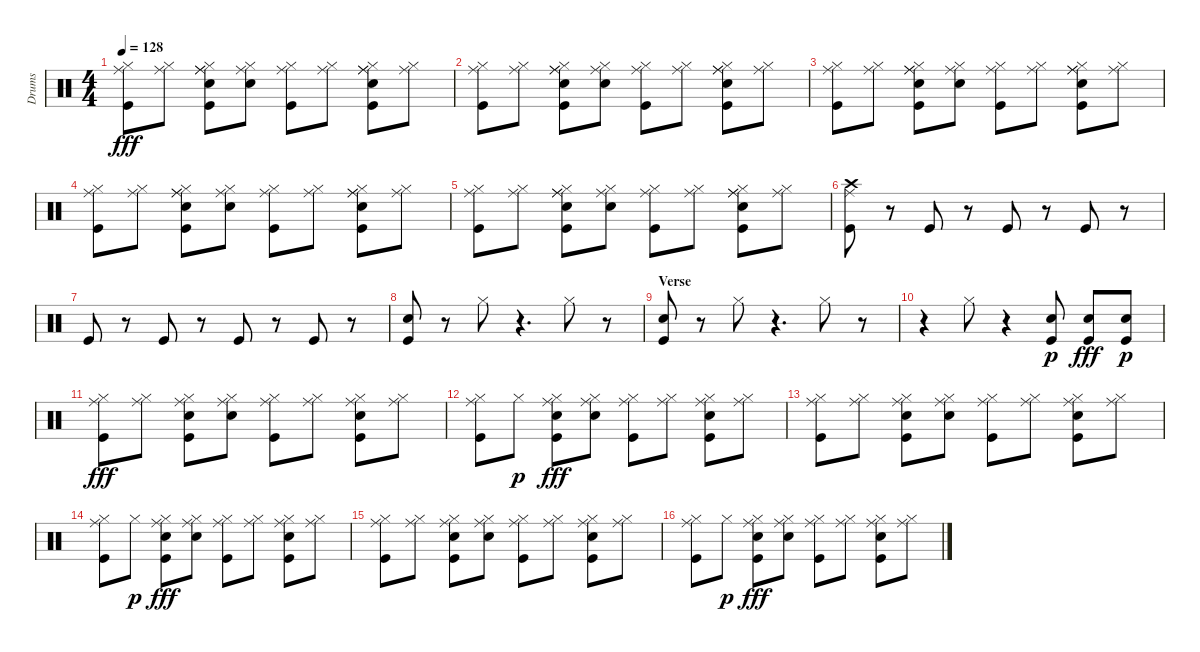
\track ("Drums               " "Drums     ") {instrument percussion}
\staff {score}
\articulation defaults
\ts (4 4)
\tempo 128
\clef neutral
\ks c
("Ride (middle)" "Hi-Hat (closed)" "Kick (hit)").8{dy fff} ("Ride (middle)" "Hi-Hat (closed)").8 ("Ride (middle)" "Hi-Hat (closed)" "Ride (middle)" "Electric Snare (hit)" "Kick (hit)").8 ("Ride (middle)" "Hi-Hat (closed)" "Electric Snare (hit)").8 ("Ride (middle)" "Hi-Hat (closed)" "Kick (hit)").8 ("Ride (middle)" "Hi-Hat (closed)").8 ("Ride (middle)" "Hi-Hat (closed)" "Ride (middle)" "Electric Snare (hit)" "Kick (hit)").8 ("Ride (middle)" "Hi-Hat (closed)").8 |
("Ride (middle)" "Hi-Hat (closed)" "Kick (hit)").8 ("Ride (middle)" "Hi-Hat (closed)").8 ("Ride (middle)" "Hi-Hat (closed)" "Ride (middle)" "Electric Snare (hit)" "Kick (hit)").8 ("Ride (middle)" "Hi-Hat (closed)" "Electric Snare (hit)").8 ("Ride (middle)" "Hi-Hat (closed)" "Kick (hit)").8 ("Ride (middle)" "Hi-Hat (closed)").8 ("Ride (middle)" "Hi-Hat (closed)" "Ride (middle)" "Electric Snare (hit)" "Kick (hit)").8 ("Ride (middle)" "Hi-Hat (closed)").8 |
("Ride (middle)" "Hi-Hat (closed)" "Kick (hit)").8 ("Ride (middle)" "Hi-Hat (closed)").8 ("Ride (middle)" "Hi-Hat (closed)" "Ride (middle)" "Electric Snare (hit)" "Kick (hit)").8 ("Ride (middle)" "Hi-Hat (closed)" "Electric Snare (hit)").8 ("Ride (middle)" "Hi-Hat (closed)" "Kick (hit)").8 ("Ride (middle)" "Hi-Hat (closed)").8 ("Ride (middle)" "Hi-Hat (closed)" "Ride (middle)" "Electric Snare (hit)" "Kick (hit)").8 ("Ride (middle)" "Hi-Hat (closed)").8 |
("Ride (middle)" "Hi-Hat (closed)" "Kick (hit)").8 ("Ride (middle)" "Hi-Hat (closed)").8 ("Ride (middle)" "Hi-Hat (closed)" "Ride (middle)" "Electric Snare (hit)" "Kick (hit)").8 ("Ride (middle)" "Hi-Hat (closed)" "Electric Snare (hit)").8 ("Ride (middle)" "Hi-Hat (closed)" "Kick (hit)").8 ("Ride (middle)" "Hi-Hat (closed)").8 ("Ride (middle)" "Hi-Hat (closed)" "Ride (middle)" "Electric Snare (hit)" "Kick (hit)").8 ("Ride (middle)" "Hi-Hat (closed)").8 |
("Ride (middle)" "Hi-Hat (closed)" "Kick (hit)").8 ("Ride (middle)" "Hi-Hat (closed)").8 ("Ride (middle)" "Hi-Hat (closed)" "Ride (middle)" "Electric Snare (hit)" "Kick (hit)").8 ("Ride (middle)" "Hi-Hat (closed)" "Electric Snare (hit)").8 ("Ride (middle)" "Hi-Hat (closed)" "Kick (hit)").8 ("Ride (middle)" "Hi-Hat (closed)").8 ("Ride (middle)" "Hi-Hat (closed)" "Ride (middle)" "Electric Snare (hit)" "Kick (hit)").8 ("Ride (middle)" "Hi-Hat (closed)").8 |
("Crash high (hit)" "Ride (middle)" "Kick (hit)").8 r.8 "Kick (hit)".8 r.8 "Kick (hit)".8 r.8 "Kick (hit)".8 r.8 |
"Kick (hit)".8 r.8 "Kick (hit)".8 r.8 "Kick (hit)".8 r.8 "Kick (hit)".8 r.8 |
("Electric Snare (hit)" "Kick (hit)").8 r.8 "Hi-Hat (closed)".8 r.4{d} "Hi-Hat (closed)".8 r.8 |
\section ("" "Verse")
("Kick (hit)" "Snare (hit) 2").8 r.8 "Hi-Hat (closed)".8 r.4{d} "Hi-Hat (closed)".8 r.8 |
r.4 "Hi-Hat (closed)".8 r.4 ("Kick (hit)" "Snare (hit) 2").8{dy p} ("Kick (hit)" "Snare (hit) 2").8{dy fff} ("Kick (hit)" "Snare (hit) 2").8{dy p} |
("Hi-Hat (closed)" "Kick (hit)" "Ride (middle)").8{dy fff} ("Hi-Hat (closed)" "Ride (middle)").8 ("Hi-Hat (closed)" "Kick (hit)" "Snare (hit) 2" "Ride (middle)").8 ("Hi-Hat (closed)" "Snare (hit) 2" "Ride (middle)").8 ("Hi-Hat (closed)" "Kick (hit)" "Ride (middle)").8 ("Hi-Hat (closed)" "Ride (middle)").8 ("Hi-Hat (closed)" "Kick (hit)" "Snare (hit) 2" "Ride (middle)").8 ("Hi-Hat (closed)" "Ride (middle)").8 |
("Hi-Hat (closed)" "Kick (hit)" "Ride (middle)").8 "Hi-Hat (closed)".8{dy p} ("Hi-Hat (closed)" "Kick (hit)" "Snare (hit) 2" "Ride (middle)").8{dy fff} ("Hi-Hat (closed)" "Snare (hit) 2" "Ride (middle)").8 ("Hi-Hat (closed)" "Kick (hit)" "Ride (middle)").8 ("Hi-Hat (closed)" "Ride (middle)").8 ("Hi-Hat (closed)" "Kick (hit)" "Snare (hit) 2" "Ride (middle)").8 ("Hi-Hat (closed)" "Ride (middle)").8 |
("Hi-Hat (closed)" "Kick (hit)" "Ride (middle)").8 ("Hi-Hat (closed)" "Ride (middle)").8 ("Hi-Hat (closed)" "Kick (hit)" "Snare (hit) 2" "Ride (middle)").8 ("Hi-Hat (closed)" "Snare (hit) 2" "Ride (middle)").8 ("Hi-Hat (closed)" "Kick (hit)" "Ride (middle)").8 ("Hi-Hat (closed)" "Ride (middle)").8 ("Hi-Hat (closed)" "Kick (hit)" "Snare (hit) 2" "Ride (middle)").8 ("Hi-Hat (closed)" "Ride (middle)").8 |
("Hi-Hat (closed)" "Kick (hit)" "Ride (middle)").8 "Hi-Hat (closed)".8{dy p} ("Hi-Hat (closed)" "Kick (hit)" "Snare (hit) 2" "Ride (middle)").8{dy fff} ("Hi-Hat (closed)" "Snare (hit) 2" "Ride (middle)").8 ("Hi-Hat (closed)" "Kick (hit)" "Ride (middle)").8 ("Hi-Hat (closed)" "Ride (middle)").8 ("Hi-Hat (closed)" "Kick (hit)" "Snare (hit) 2" "Ride (middle)").8 ("Hi-Hat (closed)" "Ride (middle)").8 |
("Hi-Hat (closed)" "Kick (hit)" "Ride (middle)").8 ("Hi-Hat (closed)" "Ride (middle)").8 ("Hi-Hat (closed)" "Kick (hit)" "Snare (hit) 2" "Ride (middle)").8 ("Hi-Hat (closed)" "Snare (hit) 2" "Ride (middle)").8 ("Hi-Hat (closed)" "Kick (hit)" "Ride (middle)").8 ("Hi-Hat (closed)" "Ride (middle)").8 ("Hi-Hat (closed)" "Kick (hit)" "Snare (hit) 2" "Ride (middle)").8 ("Hi-Hat (closed)" "Ride (middle)").8 |
("Hi-Hat (closed)" "Kick (hit)" "Ride (middle)").8 "Hi-Hat (closed)".8{dy p} ("Hi-Hat (closed)" "Kick (hit)" "Snare (hit) 2" "Ride (middle)").8{dy fff} ("Hi-Hat (closed)" "Snare (hit) 2" "Ride (middle)").8 ("Hi-Hat (closed)" "Kick (hit)" "Ride (middle)").8 ("Hi-Hat (closed)" "Ride (middle)").8 ("Hi-Hat (closed)" "Kick (hit)" "Snare (hit) 2" "Ride (middle)").8 ("Hi-Hat (closed)" "Ride (middle)").8
